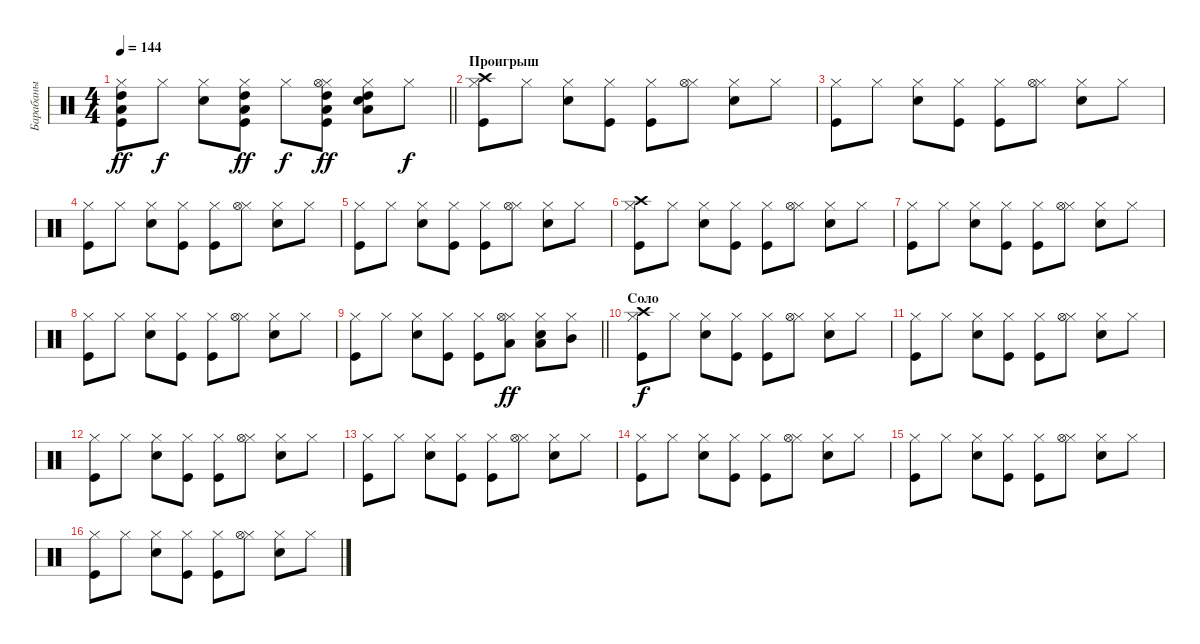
\track ("Барабаны" "Барабаны") {instrument percussion}
\staff {score}
\articulation defaults
\ts (4 4)
\tempo 144
\clef neutral
\barLineRight lightlight
\ks c
("Kick (hit)" "Hi-Hat (closed)" "Low Floor Tom (hit)" "High Tom (hit)").8{dy ff} "Hi-Hat (closed)".8{dy f} ("Snare (hit) 2" "Hi-Hat (closed)").8 ("Kick (hit)" "Hi-Hat (closed)" "Low Floor Tom (hit)" "High Tom (hit)").8{dy ff} "Hi-Hat (closed)".8{dy f} ("Kick (hit)" "Hi-Hat (closed)" "Low Floor Tom (hit)" "High Tom (hit)" "Hi-Hat (open)").8{dy ff} ("Snare (hit) 2" "Hi-Hat (closed)" "Low Floor Tom (hit)" "High Tom (hit)").8 "Hi-Hat (closed)".8{dy f} |
\section ("" "Проигрыш")
("Kick (hit)" "Hi-Hat (closed)" "Crash high (hit)").8 "Hi-Hat (closed)".8 ("Snare (hit) 2" "Hi-Hat (closed)").8 ("Kick (hit)" "Hi-Hat (closed)").8 ("Kick (hit)" "Hi-Hat (closed)").8 ("Hi-Hat (closed)" "Hi-Hat (open)").8 ("Snare (hit) 2" "Hi-Hat (closed)").8 "Hi-Hat (closed)".8 |
("Kick (hit)" "Hi-Hat (closed)").8 "Hi-Hat (closed)".8 ("Snare (hit) 2" "Hi-Hat (closed)").8 ("Kick (hit)" "Hi-Hat (closed)").8 ("Kick (hit)" "Hi-Hat (closed)").8 ("Hi-Hat (closed)" "Hi-Hat (open)").8 ("Snare (hit) 2" "Hi-Hat (closed)").8 "Hi-Hat (closed)".8 |
("Kick (hit)" "Hi-Hat (closed)").8 "Hi-Hat (closed)".8 ("Snare (hit) 2" "Hi-Hat (closed)").8 ("Kick (hit)" "Hi-Hat (closed)").8 ("Kick (hit)" "Hi-Hat (closed)").8 ("Hi-Hat (closed)" "Hi-Hat (open)").8 ("Snare (hit) 2" "Hi-Hat (closed)").8 "Hi-Hat (closed)".8 |
("Kick (hit)" "Hi-Hat (closed)").8 "Hi-Hat (closed)".8 ("Snare (hit) 2" "Hi-Hat (closed)").8 ("Kick (hit)" "Hi-Hat (closed)").8 ("Kick (hit)" "Hi-Hat (closed)").8 ("Hi-Hat (closed)" "Hi-Hat (open)").8 ("Snare (hit) 2" "Hi-Hat (closed)").8 "Hi-Hat (closed)".8 |
("Kick (hit)" "Hi-Hat (closed)" "Crash high (hit)").8 "Hi-Hat (closed)".8 ("Snare (hit) 2" "Hi-Hat (closed)").8 ("Kick (hit)" "Hi-Hat (closed)").8 ("Kick (hit)" "Hi-Hat (closed)").8 ("Hi-Hat (closed)" "Hi-Hat (open)").8 ("Snare (hit) 2" "Hi-Hat (closed)").8 "Hi-Hat (closed)".8 |
("Kick (hit)" "Hi-Hat (closed)").8 "Hi-Hat (closed)".8 ("Snare (hit) 2" "Hi-Hat (closed)").8 ("Kick (hit)" "Hi-Hat (closed)").8 ("Kick (hit)" "Hi-Hat (closed)").8 ("Hi-Hat (closed)" "Hi-Hat (open)").8 ("Snare (hit) 2" "Hi-Hat (closed)").8 "Hi-Hat (closed)".8 |
("Kick (hit)" "Hi-Hat (closed)").8 "Hi-Hat (closed)".8 ("Snare (hit) 2" "Hi-Hat (closed)").8 ("Kick (hit)" "Hi-Hat (closed)").8 ("Kick (hit)" "Hi-Hat (closed)").8 ("Hi-Hat (closed)" "Hi-Hat (open)").8 ("Snare (hit) 2" "Hi-Hat (closed)").8 "Hi-Hat (closed)".8 |
\barLineRight lightlight
("Kick (hit)" "Hi-Hat (closed)").8 "Hi-Hat (closed)".8 ("Snare (hit) 2" "Hi-Hat (closed)").8 ("Kick (hit)" "Hi-Hat (closed)").8 ("Kick (hit)" "Hi-Hat (closed)").8 ("Hi-Hat (closed)" "Low Tom (hit)" "Hi-Hat (open)").8{dy ff} ("Snare (hit) 2" "Hi-Hat (closed)" "Low Tom (hit)").8 ("Hi-Hat (closed)" "Mid Tom (hit)").8 |
\section ("" "Соло")
("Kick (hit)" "Hi-Hat (closed)" "Crash high (hit)").8{dy f} "Hi-Hat (closed)".8 ("Snare (hit) 2" "Hi-Hat (closed)").8 ("Kick (hit)" "Hi-Hat (closed)").8 ("Kick (hit)" "Hi-Hat (closed)").8 ("Hi-Hat (closed)" "Hi-Hat (open)").8 ("Snare (hit) 2" "Hi-Hat (closed)").8 "Hi-Hat (closed)".8 |
("Kick (hit)" "Hi-Hat (closed)").8 "Hi-Hat (closed)".8 ("Snare (hit) 2" "Hi-Hat (closed)").8 ("Kick (hit)" "Hi-Hat (closed)").8 ("Kick (hit)" "Hi-Hat (closed)").8 ("Hi-Hat (closed)" "Hi-Hat (open)").8 ("Snare (hit) 2" "Hi-Hat (closed)").8 "Hi-Hat (closed)".8 |
("Kick (hit)" "Hi-Hat (closed)").8 "Hi-Hat (closed)".8 ("Snare (hit) 2" "Hi-Hat (closed)").8 ("Kick (hit)" "Hi-Hat (closed)").8 ("Kick (hit)" "Hi-Hat (closed)").8 ("Hi-Hat (closed)" "Hi-Hat (open)").8 ("Snare (hit) 2" "Hi-Hat (closed)").8 "Hi-Hat (closed)".8 |
("Kick (hit)" "Hi-Hat (closed)").8 "Hi-Hat (closed)".8 ("Snare (hit) 2" "Hi-Hat (closed)").8 ("Kick (hit)" "Hi-Hat (closed)").8 ("Kick (hit)" "Hi-Hat (closed)").8 ("Hi-Hat (closed)" "Hi-Hat (open)").8 ("Snare (hit) 2" "Hi-Hat (closed)").8 "Hi-Hat (closed)".8 |
("Kick (hit)" "Hi-Hat (closed)").8 "Hi-Hat (closed)".8 ("Snare (hit) 2" "Hi-Hat (closed)").8 ("Kick (hit)" "Hi-Hat (closed)").8 ("Kick (hit)" "Hi-Hat (closed)").8 ("Hi-Hat (closed)" "Hi-Hat (open)").8 ("Snare (hit) 2" "Hi-Hat (closed)").8 "Hi-Hat (closed)".8 |
("Kick (hit)" "Hi-Hat (closed)").8 "Hi-Hat (closed)".8 ("Snare (hit) 2" "Hi-Hat (closed)").8 ("Kick (hit)" "Hi-Hat (closed)").8 ("Kick (hit)" "Hi-Hat (closed)").8 ("Hi-Hat (closed)" "Hi-Hat (open)").8 ("Snare (hit) 2" "Hi-Hat (closed)").8 "Hi-Hat (closed)".8 |
("Kick (hit)" "Hi-Hat (closed)").8 "Hi-Hat (closed)".8 ("Snare (hit) 2" "Hi-Hat (closed)").8 ("Kick (hit)" "Hi-Hat (closed)").8 ("Kick (hit)" "Hi-Hat (closed)").8 ("Hi-Hat (closed)" "Hi-Hat (open)").8 ("Snare (hit) 2" "Hi-Hat (closed)").8 "Hi-Hat (closed)".8
